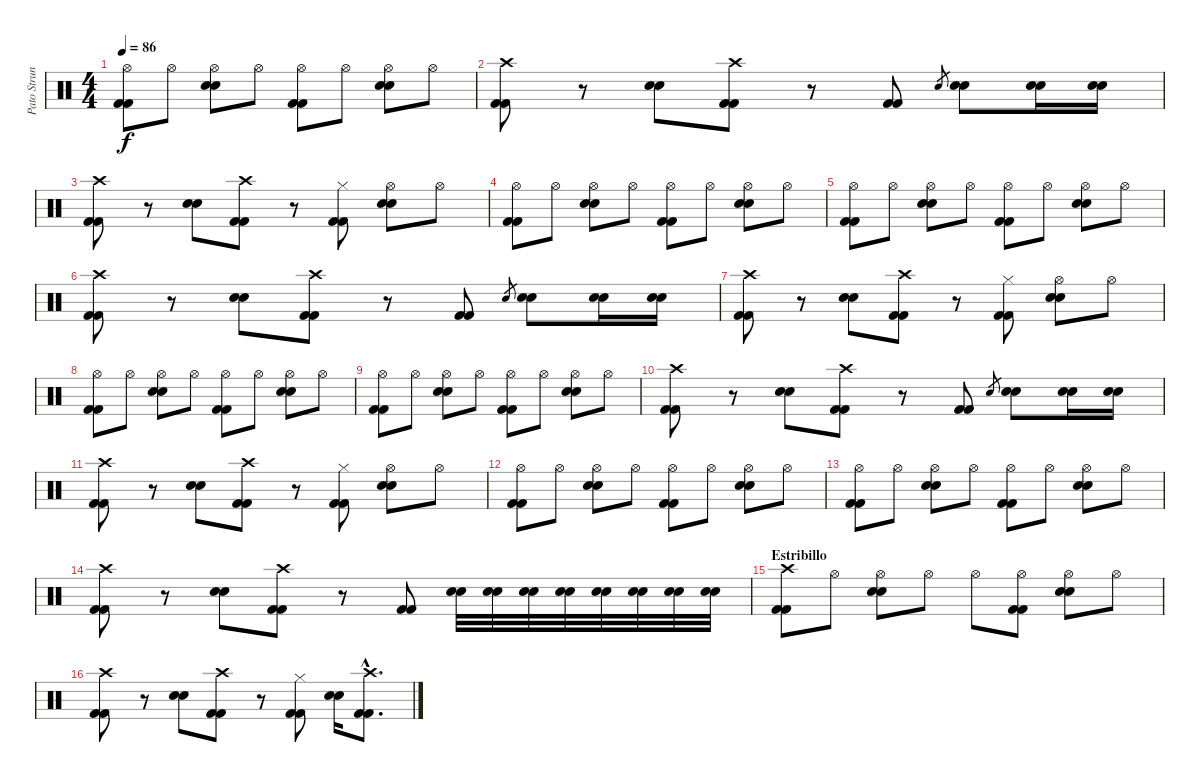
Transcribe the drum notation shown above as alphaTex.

\track ("Pato Strunz (Bateria)" "Pato Strun") {instrument percussion}
\staff {score}
\articulation defaults
\ts (4 4)
\tempo 86
\clef neutral
\ks c
("Hi-Hat (open)" "Kick (hit) 2" "Kick (hit) 2").8{dy f} "Hi-Hat (open)".8 ("Hi-Hat (open)" "Snare (hit) 2" "Snare (hit) 2").8 "Hi-Hat (open)".8 ("Hi-Hat (open)" "Kick (hit) 2" "Kick (hit) 2").8 "Hi-Hat (open)".8 ("Hi-Hat (open)" "Snare (hit) 2" "Snare (hit) 2").8 "Hi-Hat (open)".8 |
("Crash high (hit)" "Kick (hit) 2" "Kick (hit) 2").8 r.8 ("Snare (hit) 2" "Snare (hit) 2").8 ("Crash high (hit)" "Kick (hit) 2" "Kick (hit) 2").8 r.8 ("Kick (hit) 2" "Kick (hit) 2").8 "Snare (hit) 2".8{gr} ("Snare (hit) 2" "Snare (hit) 2").8 ("Snare (hit) 2" "Snare (hit) 2").16 ("Snare (hit) 2" "Snare (hit) 2").16 |
("Crash high (hit)" "Kick (hit) 2" "Kick (hit) 2").8 r.8 ("Snare (hit) 2" "Snare (hit) 2").8 ("Crash high (hit)" "Kick (hit) 2" "Kick (hit) 2").8 r.8 ("Hi-Hat (closed)" "Kick (hit) 2" "Kick (hit) 2").8 ("Hi-Hat (open)" "Snare (hit) 2" "Snare (hit) 2").8 "Hi-Hat (open)".8 |
("Hi-Hat (open)" "Kick (hit) 2" "Kick (hit) 2").8 "Hi-Hat (open)".8 ("Hi-Hat (open)" "Snare (hit) 2" "Snare (hit) 2").8 "Hi-Hat (open)".8 ("Hi-Hat (open)" "Kick (hit) 2" "Kick (hit) 2").8 "Hi-Hat (open)".8 ("Hi-Hat (open)" "Snare (hit) 2" "Snare (hit) 2").8 "Hi-Hat (open)".8 |
("Hi-Hat (open)" "Kick (hit) 2" "Kick (hit) 2").8 "Hi-Hat (open)".8 ("Hi-Hat (open)" "Snare (hit) 2" "Snare (hit) 2").8 "Hi-Hat (open)".8 ("Hi-Hat (open)" "Kick (hit) 2" "Kick (hit) 2").8 "Hi-Hat (open)".8 ("Hi-Hat (open)" "Snare (hit) 2" "Snare (hit) 2").8 "Hi-Hat (open)".8 |
("Crash high (hit)" "Kick (hit) 2" "Kick (hit) 2").8 r.8 ("Snare (hit) 2" "Snare (hit) 2").8 ("Crash high (hit)" "Kick (hit) 2" "Kick (hit) 2").8 r.8 ("Kick (hit) 2" "Kick (hit) 2").8 "Snare (hit) 2".8{gr} ("Snare (hit) 2" "Snare (hit) 2").8 ("Snare (hit) 2" "Snare (hit) 2").16 ("Snare (hit) 2" "Snare (hit) 2").16 |
("Crash high (hit)" "Kick (hit) 2" "Kick (hit) 2").8 r.8 ("Snare (hit) 2" "Snare (hit) 2").8 ("Crash high (hit)" "Kick (hit) 2" "Kick (hit) 2").8 r.8 ("Hi-Hat (closed)" "Kick (hit) 2" "Kick (hit) 2").8 ("Hi-Hat (open)" "Snare (hit) 2" "Snare (hit) 2").8 "Hi-Hat (open)".8 |
("Hi-Hat (open)" "Kick (hit) 2" "Kick (hit) 2").8 "Hi-Hat (open)".8 ("Hi-Hat (open)" "Snare (hit) 2" "Snare (hit) 2").8 "Hi-Hat (open)".8 ("Hi-Hat (open)" "Kick (hit) 2" "Kick (hit) 2").8 "Hi-Hat (open)".8 ("Hi-Hat (open)" "Snare (hit) 2" "Snare (hit) 2").8 "Hi-Hat (open)".8 |
("Hi-Hat (open)" "Kick (hit) 2" "Kick (hit) 2").8 "Hi-Hat (open)".8 ("Hi-Hat (open)" "Snare (hit) 2" "Snare (hit) 2").8 "Hi-Hat (open)".8 ("Hi-Hat (open)" "Kick (hit) 2" "Kick (hit) 2").8 "Hi-Hat (open)".8 ("Hi-Hat (open)" "Snare (hit) 2" "Snare (hit) 2").8 "Hi-Hat (open)".8 |
("Crash high (hit)" "Kick (hit) 2" "Kick (hit) 2").8 r.8 ("Snare (hit) 2" "Snare (hit) 2").8 ("Crash high (hit)" "Kick (hit) 2" "Kick (hit) 2").8 r.8 ("Kick (hit) 2" "Kick (hit) 2").8 "Snare (hit) 2".8{gr} ("Snare (hit) 2" "Snare (hit) 2").8 ("Snare (hit) 2" "Snare (hit) 2").16 ("Snare (hit) 2" "Snare (hit) 2").16 |
("Crash high (hit)" "Kick (hit) 2" "Kick (hit) 2").8 r.8 ("Snare (hit) 2" "Snare (hit) 2").8 ("Crash high (hit)" "Kick (hit) 2" "Kick (hit) 2").8 r.8 ("Hi-Hat (closed)" "Kick (hit) 2" "Kick (hit) 2").8 ("Hi-Hat (open)" "Snare (hit) 2" "Snare (hit) 2").8 "Hi-Hat (open)".8 |
("Hi-Hat (open)" "Kick (hit) 2" "Kick (hit) 2").8 "Hi-Hat (open)".8 ("Hi-Hat (open)" "Snare (hit) 2" "Snare (hit) 2").8 "Hi-Hat (open)".8 ("Hi-Hat (open)" "Kick (hit) 2" "Kick (hit) 2").8 "Hi-Hat (open)".8 ("Hi-Hat (open)" "Snare (hit) 2" "Snare (hit) 2").8 "Hi-Hat (open)".8 |
("Hi-Hat (open)" "Kick (hit) 2" "Kick (hit) 2").8 "Hi-Hat (open)".8 ("Hi-Hat (open)" "Snare (hit) 2" "Snare (hit) 2").8 "Hi-Hat (open)".8 ("Hi-Hat (open)" "Kick (hit) 2" "Kick (hit) 2").8 "Hi-Hat (open)".8 ("Hi-Hat (open)" "Snare (hit) 2" "Snare (hit) 2").8 "Hi-Hat (open)".8 |
("Crash high (hit)" "Kick (hit) 2" "Kick (hit) 2").8 r.8 ("Snare (hit) 2" "Snare (hit) 2").8 ("Crash high (hit)" "Kick (hit) 2" "Kick (hit) 2").8 r.8 ("Kick (hit) 2" "Kick (hit) 2").8 ("Snare (hit) 2" "Snare (hit) 2").32 ("Snare (hit) 2" "Snare (hit) 2").32 ("Snare (hit) 2" "Snare (hit) 2").32 ("Snare (hit) 2" "Snare (hit) 2").32 ("Snare (hit) 2" "Snare (hit) 2").32 ("Snare (hit) 2" "Snare (hit) 2").32 ("Snare (hit) 2" "Snare (hit) 2").32 ("Snare (hit) 2" "Snare (hit) 2").32 |
\section ("" "Estribillo")
("Crash high (hit)" "Kick (hit) 2" "Kick (hit) 2").8 "Hi-Hat (open)".8 ("Hi-Hat (open)" "Snare (hit) 2" "Snare (hit) 2").8 "Hi-Hat (open)".8 "Hi-Hat (open)".8 ("Hi-Hat (open)" "Kick (hit) 2" "Kick (hit) 2").8 ("Hi-Hat (open)" "Snare (hit) 2" "Snare (hit) 2").8 "Hi-Hat (open)".8 |
("Crash high (hit)" "Kick (hit) 2" "Kick (hit) 2").8 r.8 ("Snare (hit) 2" "Snare (hit) 2").8 ("Crash high (hit)" "Kick (hit) 2" "Kick (hit) 2").8 r.8 ("Hi-Hat (closed)" "Kick (hit) 2" "Kick (hit) 2").8 ("Snare (hit) 2" "Snare (hit) 2").16 ("Crash high (hit)"{hac} "Kick (hit) 2"{hac} "Kick (hit) 2"{hac}).8{d}
